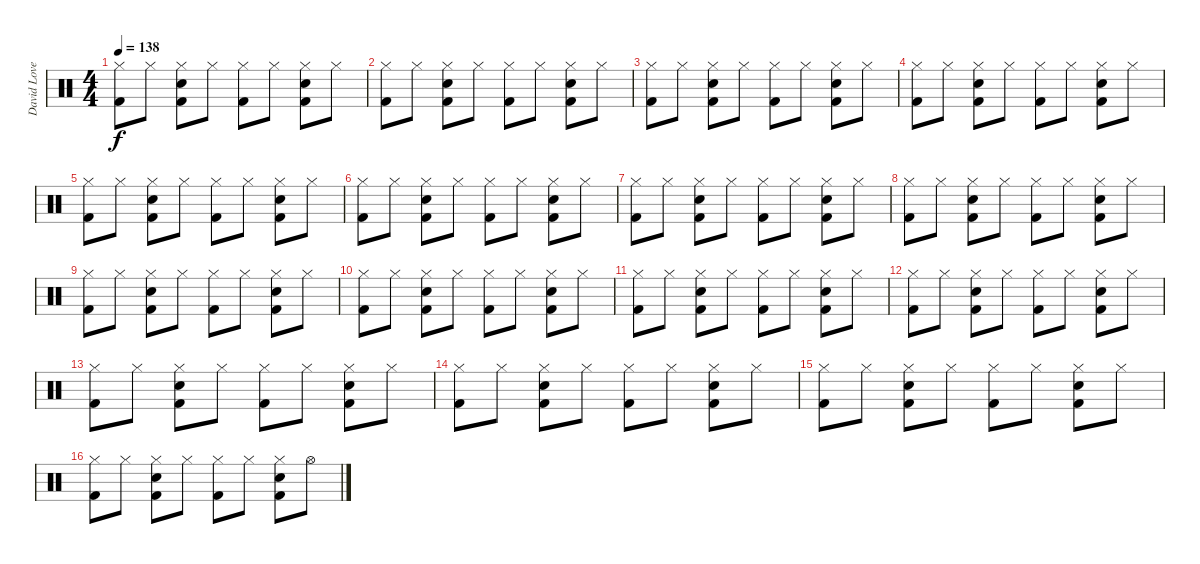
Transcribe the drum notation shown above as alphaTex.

\track ("David Lovering" "David Love") {instrument percussion}
\staff {score}
\articulation defaults
\ts (4 4)
\tempo 138
\clef neutral
\ks c
("Hi-Hat (closed)" "Kick (hit) 2").8{dy f} "Hi-Hat (closed)".8 ("Hi-Hat (closed)" "Electric Snare (hit)" "Kick (hit) 2").8 "Hi-Hat (closed)".8 ("Hi-Hat (closed)" "Kick (hit) 2").8 "Hi-Hat (closed)".8 ("Hi-Hat (closed)" "Electric Snare (hit)" "Kick (hit) 2").8 "Hi-Hat (closed)".8 |
("Hi-Hat (closed)" "Kick (hit) 2").8 "Hi-Hat (closed)".8 ("Hi-Hat (closed)" "Electric Snare (hit)" "Kick (hit) 2").8 "Hi-Hat (closed)".8 ("Hi-Hat (closed)" "Kick (hit) 2").8 "Hi-Hat (closed)".8 ("Hi-Hat (closed)" "Electric Snare (hit)" "Kick (hit) 2").8 "Hi-Hat (closed)".8 |
("Hi-Hat (closed)" "Kick (hit) 2").8 "Hi-Hat (closed)".8 ("Hi-Hat (closed)" "Electric Snare (hit)" "Kick (hit) 2").8 "Hi-Hat (closed)".8 ("Hi-Hat (closed)" "Kick (hit) 2").8 "Hi-Hat (closed)".8 ("Hi-Hat (closed)" "Electric Snare (hit)" "Kick (hit) 2").8 "Hi-Hat (closed)".8 |
("Hi-Hat (closed)" "Kick (hit) 2").8 "Hi-Hat (closed)".8 ("Hi-Hat (closed)" "Electric Snare (hit)" "Kick (hit) 2").8 "Hi-Hat (closed)".8 ("Hi-Hat (closed)" "Kick (hit) 2").8 "Hi-Hat (closed)".8 ("Hi-Hat (closed)" "Electric Snare (hit)" "Kick (hit) 2").8 "Hi-Hat (closed)".8 |
("Hi-Hat (closed)" "Kick (hit) 2").8 "Hi-Hat (closed)".8 ("Hi-Hat (closed)" "Electric Snare (hit)" "Kick (hit) 2").8 "Hi-Hat (closed)".8 ("Hi-Hat (closed)" "Kick (hit) 2").8 "Hi-Hat (closed)".8 ("Hi-Hat (closed)" "Electric Snare (hit)" "Kick (hit) 2").8 "Hi-Hat (closed)".8 |
("Hi-Hat (closed)" "Kick (hit) 2").8 "Hi-Hat (closed)".8 ("Hi-Hat (closed)" "Electric Snare (hit)" "Kick (hit) 2").8 "Hi-Hat (closed)".8 ("Hi-Hat (closed)" "Kick (hit) 2").8 "Hi-Hat (closed)".8 ("Hi-Hat (closed)" "Electric Snare (hit)" "Kick (hit) 2").8 "Hi-Hat (closed)".8 |
("Hi-Hat (closed)" "Kick (hit) 2").8 "Hi-Hat (closed)".8 ("Hi-Hat (closed)" "Electric Snare (hit)" "Kick (hit) 2").8 "Hi-Hat (closed)".8 ("Hi-Hat (closed)" "Kick (hit) 2").8 "Hi-Hat (closed)".8 ("Hi-Hat (closed)" "Electric Snare (hit)" "Kick (hit) 2").8 "Hi-Hat (closed)".8 |
("Hi-Hat (closed)" "Kick (hit) 2").8 "Hi-Hat (closed)".8 ("Hi-Hat (closed)" "Electric Snare (hit)" "Kick (hit) 2").8 "Hi-Hat (closed)".8 ("Hi-Hat (closed)" "Kick (hit) 2").8 "Hi-Hat (closed)".8 ("Hi-Hat (closed)" "Electric Snare (hit)" "Kick (hit) 2").8 "Hi-Hat (closed)".8 |
("Hi-Hat (closed)" "Kick (hit) 2").8 "Hi-Hat (closed)".8 ("Hi-Hat (closed)" "Electric Snare (hit)" "Kick (hit) 2").8 "Hi-Hat (closed)".8 ("Hi-Hat (closed)" "Kick (hit) 2").8 "Hi-Hat (closed)".8 ("Hi-Hat (closed)" "Electric Snare (hit)" "Kick (hit) 2").8 "Hi-Hat (closed)".8 |
("Hi-Hat (closed)" "Kick (hit) 2").8 "Hi-Hat (closed)".8 ("Hi-Hat (closed)" "Electric Snare (hit)" "Kick (hit) 2").8 "Hi-Hat (closed)".8 ("Hi-Hat (closed)" "Kick (hit) 2").8 "Hi-Hat (closed)".8 ("Hi-Hat (closed)" "Electric Snare (hit)" "Kick (hit) 2").8 "Hi-Hat (closed)".8 |
("Hi-Hat (closed)" "Kick (hit) 2").8 "Hi-Hat (closed)".8 ("Hi-Hat (closed)" "Electric Snare (hit)" "Kick (hit) 2").8 "Hi-Hat (closed)".8 ("Hi-Hat (closed)" "Kick (hit) 2").8 "Hi-Hat (closed)".8 ("Hi-Hat (closed)" "Electric Snare (hit)" "Kick (hit) 2").8 "Hi-Hat (closed)".8 |
("Hi-Hat (closed)" "Kick (hit) 2").8 "Hi-Hat (closed)".8 ("Hi-Hat (closed)" "Electric Snare (hit)" "Kick (hit) 2").8 "Hi-Hat (closed)".8 ("Hi-Hat (closed)" "Kick (hit) 2").8 "Hi-Hat (closed)".8 ("Hi-Hat (closed)" "Electric Snare (hit)" "Kick (hit) 2").8 "Hi-Hat (closed)".8 |
("Hi-Hat (closed)" "Kick (hit) 2").8 "Hi-Hat (closed)".8 ("Hi-Hat (closed)" "Electric Snare (hit)" "Kick (hit) 2").8 "Hi-Hat (closed)".8 ("Hi-Hat (closed)" "Kick (hit) 2").8 "Hi-Hat (closed)".8 ("Hi-Hat (closed)" "Electric Snare (hit)" "Kick (hit) 2").8 "Hi-Hat (closed)".8 |
\section ("" "")
("Hi-Hat (closed)" "Kick (hit) 2").8 "Hi-Hat (closed)".8 ("Hi-Hat (closed)" "Electric Snare (hit)" "Kick (hit) 2").8 "Hi-Hat (closed)".8 ("Hi-Hat (closed)" "Kick (hit) 2").8 "Hi-Hat (closed)".8 ("Hi-Hat (closed)" "Electric Snare (hit)" "Kick (hit) 2").8 "Hi-Hat (closed)".8 |
("Hi-Hat (closed)" "Kick (hit) 2").8 "Hi-Hat (closed)".8 ("Hi-Hat (closed)" "Electric Snare (hit)" "Kick (hit) 2").8 "Hi-Hat (closed)".8 ("Hi-Hat (closed)" "Kick (hit) 2").8 "Hi-Hat (closed)".8 ("Hi-Hat (closed)" "Electric Snare (hit)" "Kick (hit) 2").8 "Hi-Hat (closed)".8 |
("Hi-Hat (closed)" "Kick (hit) 2").8 "Hi-Hat (closed)".8 ("Hi-Hat (closed)" "Electric Snare (hit)" "Kick (hit) 2").8 "Hi-Hat (closed)".8 ("Hi-Hat (closed)" "Kick (hit) 2").8 "Hi-Hat (closed)".8 ("Hi-Hat (closed)" "Electric Snare (hit)" "Kick (hit) 2").8 "Hi-Hat (open)".8
